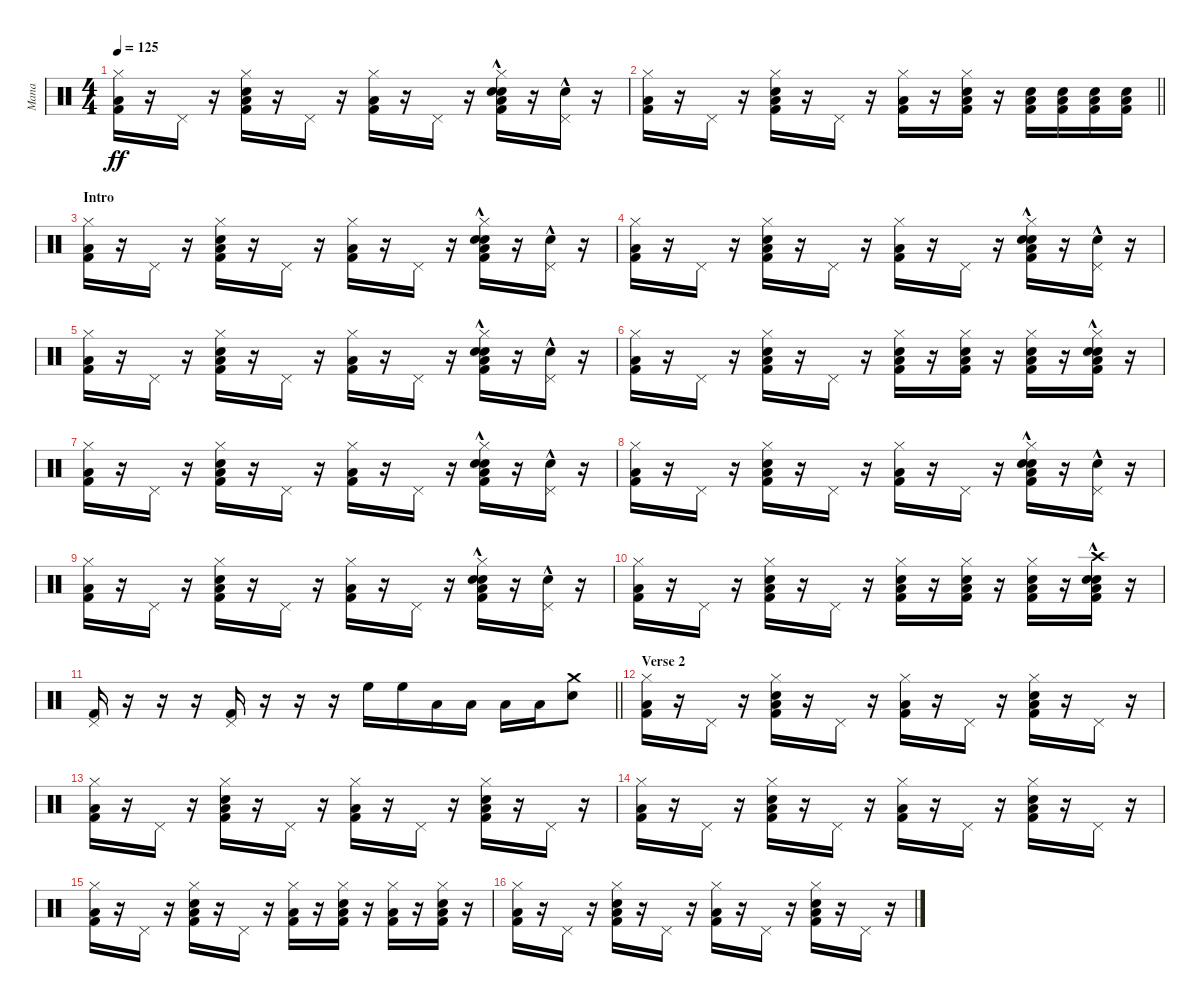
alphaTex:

\track ("Mana" "Mana") {instrument percussion}
\staff {score}
\articulation defaults
\ts (4 4)
\tempo 125
\clef neutral
\ks c
("Hi-Hat (closed)" "Low Floor Tom (hit)" "Kick (hit) 2").16{dy ff} r.16 "Pedal Hi-Hat (hit)".16 r.16 ("Hi-Hat (closed)" "Snare (hit) 2" "Low Floor Tom (hit)" "Kick (hit) 2").16 r.16 "Pedal Hi-Hat (hit)".16 r.16 ("Hi-Hat (closed)" "Low Floor Tom (hit)" "Kick (hit) 2").16 r.16 "Pedal Hi-Hat (hit)".16 r.16 ("Hand Clap (hit)"{hac} "Hi-Hat (closed)" "Snare (hit) 2" "Low Floor Tom (hit)" "Kick (hit) 2").16 r.16 ("Hand Clap (hit)"{hac} "Pedal Hi-Hat (hit)").16 r.16 |
\barLineRight lightlight
("Hi-Hat (closed)" "Low Floor Tom (hit)" "Kick (hit) 2").16 r.16 "Pedal Hi-Hat (hit)".16 r.16 ("Hi-Hat (closed)" "Snare (hit) 2" "Low Floor Tom (hit)" "Kick (hit) 2").16 r.16 "Pedal Hi-Hat (hit)".16 r.16 ("Hi-Hat (closed)" "Low Floor Tom (hit)" "Kick (hit) 2").16 r.16 ("Hi-Hat (closed)" "Snare (hit) 2" "Low Floor Tom (hit)" "Kick (hit) 2").16 r.16 ("Low Floor Tom (hit)" "Snare (hit) 2" "Kick (hit) 2").16 ("Low Floor Tom (hit)" "Snare (hit) 2" "Kick (hit) 2").16 ("Low Floor Tom (hit)" "Snare (hit) 2" "Kick (hit) 2").16 ("Low Floor Tom (hit)" "Snare (hit) 2" "Kick (hit) 2").16 |
\section ("" "Intro")
("Hi-Hat (closed)" "Low Floor Tom (hit)" "Kick (hit) 2").16 r.16 "Pedal Hi-Hat (hit)".16 r.16 ("Hi-Hat (closed)" "Snare (hit) 2" "Low Floor Tom (hit)" "Kick (hit) 2").16 r.16 "Pedal Hi-Hat (hit)".16 r.16 ("Hi-Hat (closed)" "Low Floor Tom (hit)" "Kick (hit) 2").16 r.16 "Pedal Hi-Hat (hit)".16 r.16 ("Hand Clap (hit)"{hac} "Hi-Hat (closed)" "Snare (hit) 2" "Low Floor Tom (hit)" "Kick (hit) 2").16 r.16 ("Hand Clap (hit)"{hac} "Pedal Hi-Hat (hit)").16 r.16 |
("Hi-Hat (closed)" "Low Floor Tom (hit)" "Kick (hit) 2").16 r.16 "Pedal Hi-Hat (hit)".16 r.16 ("Hi-Hat (closed)" "Snare (hit) 2" "Low Floor Tom (hit)" "Kick (hit) 2").16 r.16 "Pedal Hi-Hat (hit)".16 r.16 ("Hi-Hat (closed)" "Low Floor Tom (hit)" "Kick (hit) 2").16 r.16 "Pedal Hi-Hat (hit)".16 r.16 ("Hand Clap (hit)"{hac} "Hi-Hat (closed)" "Snare (hit) 2" "Low Floor Tom (hit)" "Kick (hit) 2").16 r.16 ("Hand Clap (hit)"{hac} "Pedal Hi-Hat (hit)").16 r.16 |
("Hi-Hat (closed)" "Low Floor Tom (hit)" "Kick (hit) 2").16 r.16 "Pedal Hi-Hat (hit)".16 r.16 ("Hi-Hat (closed)" "Snare (hit) 2" "Low Floor Tom (hit)" "Kick (hit) 2").16 r.16 "Pedal Hi-Hat (hit)".16 r.16 ("Hi-Hat (closed)" "Low Floor Tom (hit)" "Kick (hit) 2").16 r.16 "Pedal Hi-Hat (hit)".16 r.16 ("Hand Clap (hit)"{hac} "Hi-Hat (closed)" "Snare (hit) 2" "Low Floor Tom (hit)" "Kick (hit) 2").16 r.16 ("Hand Clap (hit)"{hac} "Pedal Hi-Hat (hit)").16 r.16 |
("Hi-Hat (closed)" "Low Floor Tom (hit)" "Kick (hit) 2").16 r.16 "Pedal Hi-Hat (hit)".16 r.16 ("Hi-Hat (closed)" "Snare (hit) 2" "Low Floor Tom (hit)" "Kick (hit) 2").16 r.16 "Pedal Hi-Hat (hit)".16 r.16 ("Hi-Hat (closed)" "Snare (hit) 2" "Low Floor Tom (hit)" "Kick (hit) 2").16 r.16 ("Hi-Hat (closed)" "Snare (hit) 2" "Low Floor Tom (hit)" "Kick (hit) 2").16 r.16 ("Hand Clap (hit)" "Hi-Hat (closed)" "Low Floor Tom (hit)" "Kick (hit) 2").16 r.16 ("Hand Clap (hit)"{hac} "Hi-Hat (closed)" "Snare (hit) 2" "Low Floor Tom (hit)" "Kick (hit) 2").16 r.16 |
("Hi-Hat (closed)" "Low Floor Tom (hit)" "Kick (hit) 2").16 r.16 "Pedal Hi-Hat (hit)".16 r.16 ("Hi-Hat (closed)" "Snare (hit) 2" "Low Floor Tom (hit)" "Kick (hit) 2").16 r.16 "Pedal Hi-Hat (hit)".16 r.16 ("Hi-Hat (closed)" "Low Floor Tom (hit)" "Kick (hit) 2").16 r.16 "Pedal Hi-Hat (hit)".16 r.16 ("Hand Clap (hit)"{hac} "Hi-Hat (closed)" "Snare (hit) 2" "Low Floor Tom (hit)" "Kick (hit) 2").16 r.16 ("Hand Clap (hit)"{hac} "Pedal Hi-Hat (hit)").16 r.16 |
("Hi-Hat (closed)" "Low Floor Tom (hit)" "Kick (hit) 2").16 r.16 "Pedal Hi-Hat (hit)".16 r.16 ("Hi-Hat (closed)" "Snare (hit) 2" "Low Floor Tom (hit)" "Kick (hit) 2").16 r.16 "Pedal Hi-Hat (hit)".16 r.16 ("Hi-Hat (closed)" "Low Floor Tom (hit)" "Kick (hit) 2").16 r.16 "Pedal Hi-Hat (hit)".16 r.16 ("Hand Clap (hit)"{hac} "Hi-Hat (closed)" "Snare (hit) 2" "Low Floor Tom (hit)" "Kick (hit) 2").16 r.16 ("Hand Clap (hit)"{hac} "Pedal Hi-Hat (hit)").16 r.16 |
("Hi-Hat (closed)" "Low Floor Tom (hit)" "Kick (hit) 2").16 r.16 "Pedal Hi-Hat (hit)".16 r.16 ("Hi-Hat (closed)" "Snare (hit) 2" "Low Floor Tom (hit)" "Kick (hit) 2").16 r.16 "Pedal Hi-Hat (hit)".16 r.16 ("Hi-Hat (closed)" "Low Floor Tom (hit)" "Kick (hit) 2").16 r.16 "Pedal Hi-Hat (hit)".16 r.16 ("Hand Clap (hit)"{hac} "Hi-Hat (closed)" "Snare (hit) 2" "Low Floor Tom (hit)" "Kick (hit) 2").16 r.16 ("Hand Clap (hit)"{hac} "Pedal Hi-Hat (hit)").16 r.16 |
("Hi-Hat (closed)" "Low Floor Tom (hit)" "Kick (hit) 2").16 r.16 "Pedal Hi-Hat (hit)".16 r.16 ("Hi-Hat (closed)" "Snare (hit) 2" "Low Floor Tom (hit)" "Kick (hit) 2").16 r.16 "Pedal Hi-Hat (hit)".16 r.16 ("Hi-Hat (closed)" "Snare (hit) 2" "Low Floor Tom (hit)" "Kick (hit) 2").16 r.16 ("Hi-Hat (closed)" "Snare (hit) 2" "Low Floor Tom (hit)" "Kick (hit) 2").16 r.16 ("Hand Clap (hit)" "Hi-Hat (closed)" "Low Floor Tom (hit)" "Kick (hit) 2").16 r.16 ("Hand Clap (hit)"{hac} "Crash high (hit)" "Snare (hit) 2" "Low Floor Tom (hit)" "Kick (hit) 2").16 r.16 |
\barLineRight lightlight
("Pedal Hi-Hat (hit)" "Kick (hit) 2").16 r.16 r.16 r.16 ("Pedal Hi-Hat (hit)" "Kick (hit) 2").16 r.16 r.16 r.16 "High Floor Tom (hit)".16 "High Floor Tom (hit)".16 "Low Floor Tom (hit)".16 "Low Floor Tom (hit)".16 "Low Floor Tom (hit)".16 "Low Floor Tom (hit)".16 ("Crash medium (hit)" "Snare (hit) 2").8 |
\section ("" "Verse 2")
("Hi-Hat (closed)" "Low Floor Tom (hit)" "Kick (hit) 2").16 r.16 "Pedal Hi-Hat (hit)".16 r.16 ("Hi-Hat (closed)" "Snare (hit) 2" "Low Floor Tom (hit)" "Kick (hit) 2").16 r.16 "Pedal Hi-Hat (hit)".16 r.16 ("Hi-Hat (closed)" "Low Floor Tom (hit)" "Kick (hit) 2").16 r.16 "Pedal Hi-Hat (hit)".16 r.16 ("Hi-Hat (closed)" "Snare (hit) 2" "Low Floor Tom (hit)" "Kick (hit) 2").16 r.16 "Pedal Hi-Hat (hit)".16 r.16 |
("Hi-Hat (closed)" "Low Floor Tom (hit)" "Kick (hit) 2").16 r.16 "Pedal Hi-Hat (hit)".16 r.16 ("Hi-Hat (closed)" "Snare (hit) 2" "Low Floor Tom (hit)" "Kick (hit) 2").16 r.16 "Pedal Hi-Hat (hit)".16 r.16 ("Hi-Hat (closed)" "Low Floor Tom (hit)" "Kick (hit) 2").16 r.16 "Pedal Hi-Hat (hit)".16 r.16 ("Hi-Hat (closed)" "Snare (hit) 2" "Low Floor Tom (hit)" "Kick (hit) 2").16 r.16 "Pedal Hi-Hat (hit)".16 r.16 |
("Hi-Hat (closed)" "Low Floor Tom (hit)" "Kick (hit) 2").16 r.16 "Pedal Hi-Hat (hit)".16 r.16 ("Hi-Hat (closed)" "Snare (hit) 2" "Low Floor Tom (hit)" "Kick (hit) 2").16 r.16 "Pedal Hi-Hat (hit)".16 r.16 ("Hi-Hat (closed)" "Low Floor Tom (hit)" "Kick (hit) 2").16 r.16 "Pedal Hi-Hat (hit)".16 r.16 ("Hi-Hat (closed)" "Snare (hit) 2" "Low Floor Tom (hit)" "Kick (hit) 2").16 r.16 "Pedal Hi-Hat (hit)".16 r.16 |
("Hi-Hat (closed)" "Low Floor Tom (hit)" "Kick (hit) 2").16 r.16 "Pedal Hi-Hat (hit)".16 r.16 ("Hi-Hat (closed)" "Snare (hit) 2" "Low Floor Tom (hit)" "Kick (hit) 2").16 r.16 "Pedal Hi-Hat (hit)".16 r.16 ("Hi-Hat (closed)" "Low Floor Tom (hit)" "Kick (hit) 2").16 r.16 ("Hi-Hat (closed)" "Snare (hit) 2" "Low Floor Tom (hit)" "Kick (hit) 2").16 r.16 ("Hi-Hat (closed)" "Low Floor Tom (hit)" "Kick (hit) 2").16 r.16 ("Hi-Hat (closed)" "Snare (hit) 2" "Low Floor Tom (hit)" "Kick (hit) 2").16 r.16 |
("Hi-Hat (closed)" "Low Floor Tom (hit)" "Kick (hit) 2").16 r.16 "Pedal Hi-Hat (hit)".16 r.16 ("Hi-Hat (closed)" "Snare (hit) 2" "Low Floor Tom (hit)" "Kick (hit) 2").16 r.16 "Pedal Hi-Hat (hit)".16 r.16 ("Hi-Hat (closed)" "Low Floor Tom (hit)" "Kick (hit) 2").16 r.16 "Pedal Hi-Hat (hit)".16 r.16 ("Hi-Hat (closed)" "Snare (hit) 2" "Low Floor Tom (hit)" "Kick (hit) 2").16 r.16 "Pedal Hi-Hat (hit)".16 r.16
